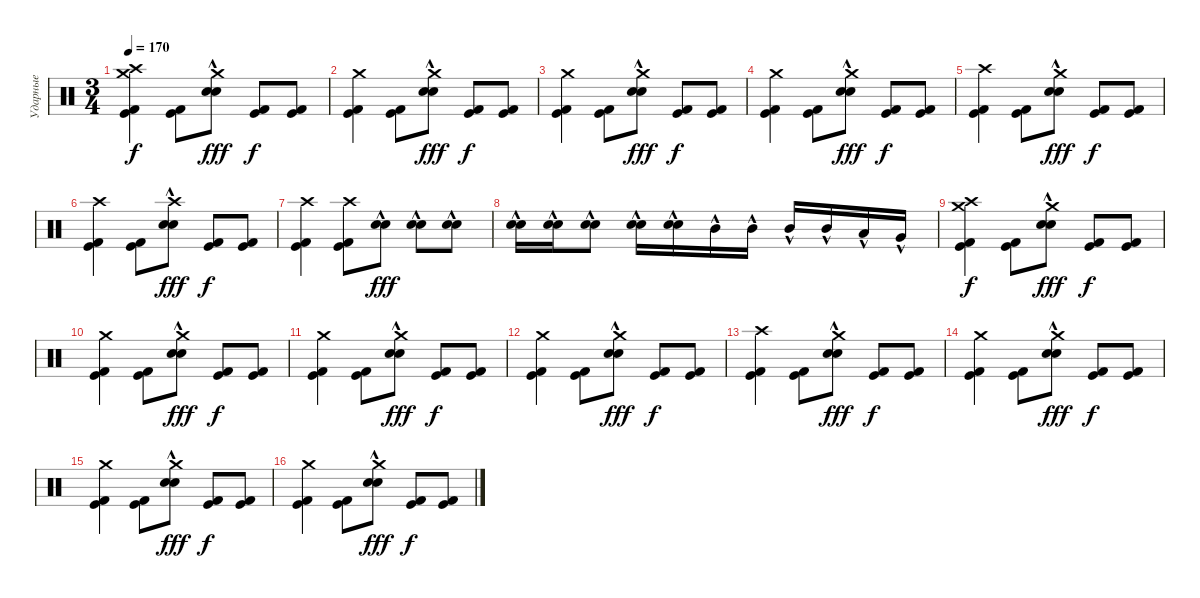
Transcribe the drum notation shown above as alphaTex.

\track ("Ударные" "Ударные") {instrument percussion}
\staff {score}
\articulation defaults
\ts (3 4)
\tempo 170
\clef neutral
\ks c
("Crash high (hit)" "Kick (hit)" "Kick (hit) 2" "Crash medium (hit)").4{dy f} ("Kick (hit)" "Kick (hit) 2").8 ("Crash medium (hit)" "Snare (hit) 2"{hac} "Electric Snare (hit)"{hac}).8{dy fff} ("Kick (hit)" "Kick (hit) 2").8{dy f} ("Kick (hit)" "Kick (hit) 2").8 |
("Crash medium (hit)" "Kick (hit)" "Kick (hit) 2").4 ("Kick (hit)" "Kick (hit) 2").8 ("Crash medium (hit)" "Snare (hit) 2"{hac} "Electric Snare (hit)"{hac}).8{dy fff} ("Kick (hit)" "Kick (hit) 2").8{dy f} ("Kick (hit)" "Kick (hit) 2").8 |
("Crash medium (hit)" "Kick (hit)" "Kick (hit) 2").4 ("Kick (hit)" "Kick (hit) 2").8 ("Crash medium (hit)" "Snare (hit) 2"{hac} "Electric Snare (hit)"{hac}).8{dy fff} ("Kick (hit)" "Kick (hit) 2").8{dy f} ("Kick (hit)" "Kick (hit) 2").8 |
("Crash medium (hit)" "Kick (hit)" "Kick (hit) 2").4 ("Kick (hit)" "Kick (hit) 2").8 ("Crash medium (hit)" "Snare (hit) 2"{hac} "Electric Snare (hit)"{hac}).8{dy fff} ("Kick (hit)" "Kick (hit) 2").8{dy f} ("Kick (hit)" "Kick (hit) 2").8 |
("Crash high (hit)" "Kick (hit)" "Kick (hit) 2").4 ("Kick (hit)" "Kick (hit) 2").8 ("Crash medium (hit)" "Snare (hit) 2"{hac} "Electric Snare (hit)"{hac}).8{dy fff} ("Kick (hit)" "Kick (hit) 2").8{dy f} ("Kick (hit)" "Kick (hit) 2").8 |
("Crash high (hit)" "Kick (hit)" "Kick (hit) 2").4 ("Kick (hit)" "Kick (hit) 2").8 ("Crash high (hit)" "Snare (hit) 2"{hac} "Electric Snare (hit)"{hac}).8{dy fff} ("Kick (hit)" "Kick (hit) 2").8{dy f} ("Kick (hit)" "Kick (hit) 2").8 |
("Crash high (hit)" "Kick (hit)" "Kick (hit) 2").4 ("Crash high (hit)" "Kick (hit)" "Kick (hit) 2").8 ("Snare (hit) 2"{hac} "Electric Snare (hit)"{hac}).8{dy fff} ("Snare (hit) 2"{hac} "Electric Snare (hit)"{hac}).8 ("Snare (hit) 2"{hac} "Electric Snare (hit)"{hac}).8 |
("Snare (hit) 2"{hac} "Electric Snare (hit)"{hac}).16 ("Snare (hit) 2"{hac} "Electric Snare (hit)"{hac}).16 ("Snare (hit) 2"{hac} "Electric Snare (hit)"{hac}).8 ("Snare (hit) 2"{hac} "Electric Snare (hit)"{hac}).16 ("Snare (hit) 2"{hac} "Electric Snare (hit)"{hac}).16 "Mid Tom (hit)"{hac}.16 "Mid Tom (hit)"{hac}.16 "Mid Tom (hit)"{hac}.16 "Mid Tom (hit)"{hac}.16 "Low Tom (hit)"{hac}.16 "Very Low Tom (hit)"{hac}.16 |
("Crash high (hit)" "Kick (hit)" "Kick (hit) 2" "Crash medium (hit)").4{dy f} ("Kick (hit)" "Kick (hit) 2").8 ("Crash medium (hit)" "Snare (hit) 2"{hac} "Electric Snare (hit)"{hac}).8{dy fff} ("Kick (hit)" "Kick (hit) 2").8{dy f} ("Kick (hit)" "Kick (hit) 2").8 |
("Crash medium (hit)" "Kick (hit)" "Kick (hit) 2").4 ("Kick (hit)" "Kick (hit) 2").8 ("Crash medium (hit)" "Snare (hit) 2"{hac} "Electric Snare (hit)"{hac}).8{dy fff} ("Kick (hit)" "Kick (hit) 2").8{dy f} ("Kick (hit)" "Kick (hit) 2").8 |
("Crash medium (hit)" "Kick (hit)" "Kick (hit) 2").4 ("Kick (hit)" "Kick (hit) 2").8 ("Crash medium (hit)" "Snare (hit) 2"{hac} "Electric Snare (hit)"{hac}).8{dy fff} ("Kick (hit)" "Kick (hit) 2").8{dy f} ("Kick (hit)" "Kick (hit) 2").8 |
("Crash medium (hit)" "Kick (hit)" "Kick (hit) 2").4 ("Kick (hit)" "Kick (hit) 2").8 ("Crash medium (hit)" "Snare (hit) 2"{hac} "Electric Snare (hit)"{hac}).8{dy fff} ("Kick (hit)" "Kick (hit) 2").8{dy f} ("Kick (hit)" "Kick (hit) 2").8 |
("Crash high (hit)" "Kick (hit)" "Kick (hit) 2").4 ("Kick (hit)" "Kick (hit) 2").8 ("Crash medium (hit)" "Snare (hit) 2"{hac} "Electric Snare (hit)"{hac}).8{dy fff} ("Kick (hit)" "Kick (hit) 2").8{dy f} ("Kick (hit)" "Kick (hit) 2").8 |
("Crash medium (hit)" "Kick (hit)" "Kick (hit) 2").4 ("Kick (hit)" "Kick (hit) 2").8 ("Crash medium (hit)" "Snare (hit) 2"{hac} "Electric Snare (hit)"{hac}).8{dy fff} ("Kick (hit)" "Kick (hit) 2").8{dy f} ("Kick (hit)" "Kick (hit) 2").8 |
("Crash medium (hit)" "Kick (hit)" "Kick (hit) 2").4 ("Kick (hit)" "Kick (hit) 2").8 ("Crash medium (hit)" "Snare (hit) 2"{hac} "Electric Snare (hit)"{hac}).8{dy fff} ("Kick (hit)" "Kick (hit) 2").8{dy f} ("Kick (hit)" "Kick (hit) 2").8 |
("Crash medium (hit)" "Kick (hit)" "Kick (hit) 2").4 ("Kick (hit)" "Kick (hit) 2").8 ("Crash medium (hit)" "Snare (hit) 2"{hac} "Electric Snare (hit)"{hac}).8{dy fff} ("Kick (hit)" "Kick (hit) 2").8{dy f} ("Kick (hit)" "Kick (hit) 2").8
